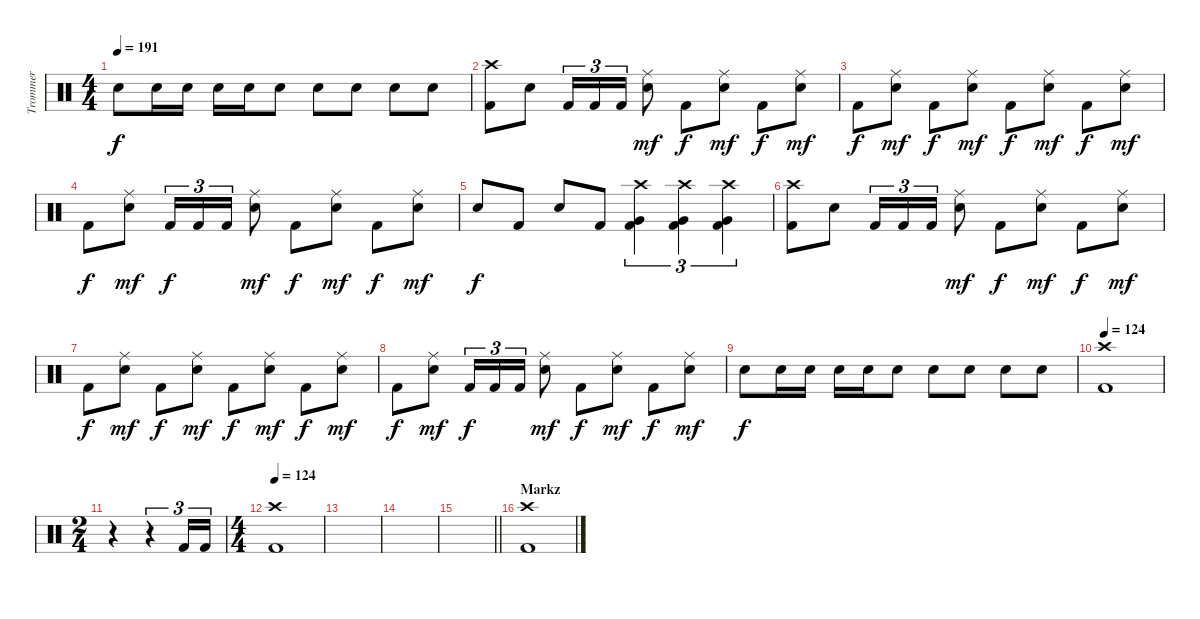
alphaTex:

\track ("Trommer" "Trommer") {instrument percussion}
\staff {score}
\articulation defaults
\ts (4 4)
\tempo 191
\clef neutral
\ks c "Electric Snare (hit)".8{dy f} "Electric Snare (hit)".16 "Electric Snare (hit)".16 "Electric Snare (hit)".16 "Electric Snare (hit)".16 "Electric Snare (hit)".8 "Electric Snare (hit)".8 "Electric Snare (hit)".8 "Electric Snare (hit)".8 "Electric Snare (hit)".8
|
("Crash high (hit)" "Kick (hit) 2").8 "Electric Snare (hit)".8 "Kick (hit) 2".16{tu (3 2)} "Kick (hit) 2".16{tu (3 2)} "Kick (hit) 2".16{tu (3 2)} ("Ride (middle)" "Electric Snare (hit)").8{dy mf} "Kick (hit) 2".8{dy f} ("Ride (middle)" "Electric Snare (hit)").8{dy mf} "Kick (hit) 2".8{dy f} ("Ride (middle)" "Electric Snare (hit)").8{dy mf} |
"Kick (hit) 2".8{dy f} ("Ride (middle)" "Electric Snare (hit)").8{dy mf} "Kick (hit) 2".8{dy f} ("Ride (middle)" "Electric Snare (hit)").8{dy mf} "Kick (hit) 2".8{dy f} ("Ride (middle)" "Electric Snare (hit)").8{dy mf} "Kick (hit) 2".8{dy f} ("Ride (middle)" "Electric Snare (hit)").8{dy mf} |
"Kick (hit) 2".8{dy f} ("Ride (middle)" "Electric Snare (hit)").8{dy mf} "Kick (hit) 2".16{tu (3 2) dy f} "Kick (hit) 2".16{tu (3 2)} "Kick (hit) 2".16{tu (3 2)} ("Ride (middle)" "Electric Snare (hit)").8{dy mf} "Kick (hit) 2".8{dy f} ("Ride (middle)" "Electric Snare (hit)").8{dy mf} "Kick (hit) 2".8{dy f} ("Ride (middle)" "Electric Snare (hit)").8{dy mf} |
"Electric Snare (hit)".8{dy f} "Kick (hit) 2".8 "Electric Snare (hit)".8 "Kick (hit) 2".8 ("Crash high (hit)" "Very Low Tom (hit)" "Kick (hit) 2").4{tu (3 2)} ("Crash high (hit)" "Very Low Tom (hit)" "Kick (hit) 2").4{tu (3 2)} ("Crash high (hit)" "Very Low Tom (hit)" "Kick (hit) 2").4{tu (3 2)} |
("Crash high (hit)" "Kick (hit) 2").8 "Electric Snare (hit)".8 "Kick (hit) 2".16{tu (3 2)} "Kick (hit) 2".16{tu (3 2)} "Kick (hit) 2".16{tu (3 2)} ("Ride (middle)" "Electric Snare (hit)").8{dy mf} "Kick (hit) 2".8{dy f} ("Ride (middle)" "Electric Snare (hit)").8{dy mf} "Kick (hit) 2".8{dy f} ("Ride (middle)" "Electric Snare (hit)").8{dy mf} |
"Kick (hit) 2".8{dy f} ("Ride (middle)" "Electric Snare (hit)").8{dy mf} "Kick (hit) 2".8{dy f} ("Ride (middle)" "Electric Snare (hit)").8{dy mf} "Kick (hit) 2".8{dy f} ("Ride (middle)" "Electric Snare (hit)").8{dy mf} "Kick (hit) 2".8{dy f} ("Ride (middle)" "Electric Snare (hit)").8{dy mf} |
"Kick (hit) 2".8{dy f} ("Ride (middle)" "Electric Snare (hit)").8{dy mf} "Kick (hit) 2".16{tu (3 2) dy f} "Kick (hit) 2".16{tu (3 2)} "Kick (hit) 2".16{tu (3 2)} ("Ride (middle)" "Electric Snare (hit)").8{dy mf} "Kick (hit) 2".8{dy f} ("Ride (middle)" "Electric Snare (hit)").8{dy mf} "Kick (hit) 2".8{dy f} ("Ride (middle)" "Electric Snare (hit)").8{dy mf} |
"Electric Snare (hit)".8{dy f} "Electric Snare (hit)".16 "Electric Snare (hit)".16 "Electric Snare (hit)".16 "Electric Snare (hit)".16 "Electric Snare (hit)".8 "Electric Snare (hit)".8 "Electric Snare (hit)".8 "Electric Snare (hit)".8 "Electric Snare (hit)".8 |
\tempo 124
("Crash high (hit)" "Kick (hit) 2").1 |
\ts (2 4)
r.4 r.4{tu (3 2)} "Kick (hit) 2".16{tu (3 2)} "Kick (hit) 2".16{tu (3 2)} |
\ts (4 4)
\tempo 124
("Crash high (hit)" "Kick (hit) 2").1 |
|
|
\barLineRight lightlight
|
\section ("" "Markz")
("Crash high (hit)" "Kick (hit) 2").1
